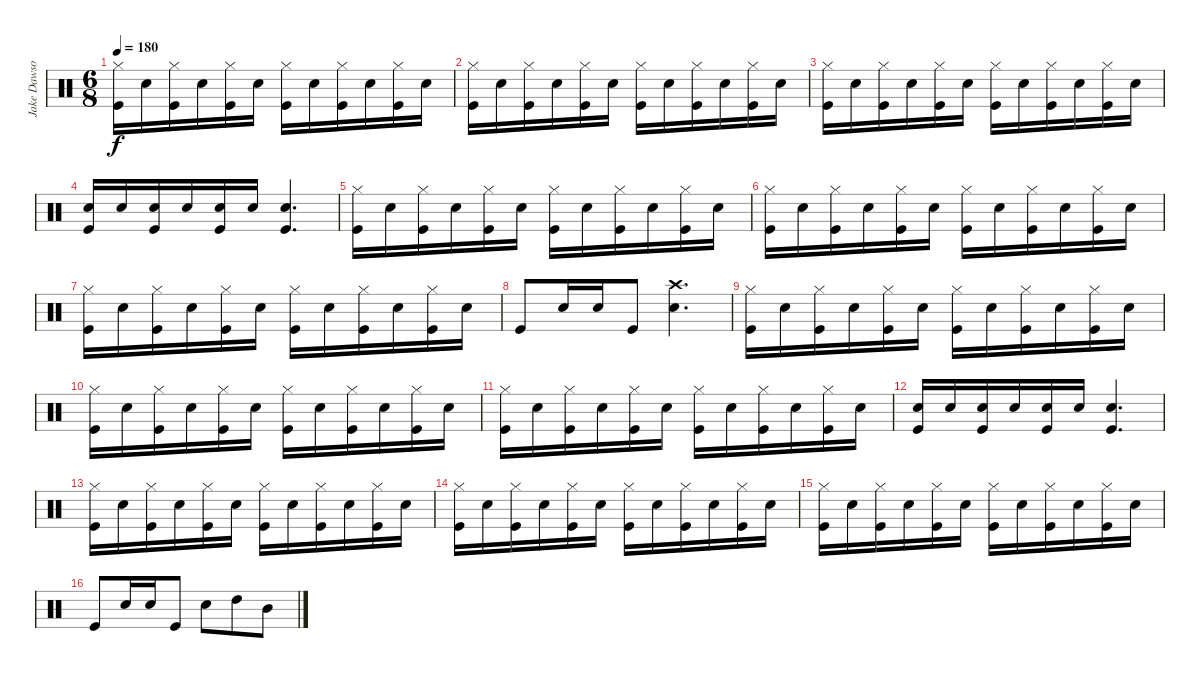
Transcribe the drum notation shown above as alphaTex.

\track ("Jake Dawson" "Jake Dawso") {instrument percussion}
\staff {score}
\articulation defaults
\ts (6 8)
\tempo 180
\clef neutral
\ks c
("Hi-Hat (closed)" "Kick (hit)").16{dy f} "Snare (hit) 2".16 ("Hi-Hat (closed)" "Kick (hit)").16 "Snare (hit) 2".16 ("Hi-Hat (closed)" "Kick (hit)").16 "Snare (hit) 2".16 ("Hi-Hat (closed)" "Kick (hit)").16 "Snare (hit) 2".16 ("Hi-Hat (closed)" "Kick (hit)").16 "Snare (hit) 2".16 ("Hi-Hat (closed)" "Kick (hit)").16 "Snare (hit) 2".16 |
("Hi-Hat (closed)" "Kick (hit)").16 "Snare (hit) 2".16 ("Hi-Hat (closed)" "Kick (hit)").16 "Snare (hit) 2".16 ("Hi-Hat (closed)" "Kick (hit)").16 "Snare (hit) 2".16 ("Hi-Hat (closed)" "Kick (hit)").16 "Snare (hit) 2".16 ("Hi-Hat (closed)" "Kick (hit)").16 "Snare (hit) 2".16 ("Hi-Hat (closed)" "Kick (hit)").16 "Snare (hit) 2".16 |
("Hi-Hat (closed)" "Kick (hit)").16 "Snare (hit) 2".16 ("Hi-Hat (closed)" "Kick (hit)").16 "Snare (hit) 2".16 ("Hi-Hat (closed)" "Kick (hit)").16 "Snare (hit) 2".16 ("Hi-Hat (closed)" "Kick (hit)").16 "Snare (hit) 2".16 ("Hi-Hat (closed)" "Kick (hit)").16 "Snare (hit) 2".16 ("Hi-Hat (closed)" "Kick (hit)").16 "Snare (hit) 2".16 |
("Snare (hit) 2" "Kick (hit)").16 "Snare (hit) 2".16 ("Snare (hit) 2" "Kick (hit)").16 "Snare (hit) 2".16 ("Snare (hit) 2" "Kick (hit)").16 "Snare (hit) 2".16 ("Snare (hit) 2" "Kick (hit)").4{d} |
("Hi-Hat (closed)" "Kick (hit)").16 "Snare (hit) 2".16 ("Hi-Hat (closed)" "Kick (hit)").16 "Snare (hit) 2".16 ("Hi-Hat (closed)" "Kick (hit)").16 "Snare (hit) 2".16 ("Hi-Hat (closed)" "Kick (hit)").16 "Snare (hit) 2".16 ("Hi-Hat (closed)" "Kick (hit)").16 "Snare (hit) 2".16 ("Hi-Hat (closed)" "Kick (hit)").16 "Snare (hit) 2".16 |
("Hi-Hat (closed)" "Kick (hit)").16 "Snare (hit) 2".16 ("Hi-Hat (closed)" "Kick (hit)").16 "Snare (hit) 2".16 ("Hi-Hat (closed)" "Kick (hit)").16 "Snare (hit) 2".16 ("Hi-Hat (closed)" "Kick (hit)").16 "Snare (hit) 2".16 ("Hi-Hat (closed)" "Kick (hit)").16 "Snare (hit) 2".16 ("Hi-Hat (closed)" "Kick (hit)").16 "Snare (hit) 2".16 |
("Hi-Hat (closed)" "Kick (hit)").16 "Snare (hit) 2".16 ("Hi-Hat (closed)" "Kick (hit)").16 "Snare (hit) 2".16 ("Hi-Hat (closed)" "Kick (hit)").16 "Snare (hit) 2".16 ("Hi-Hat (closed)" "Kick (hit)").16 "Snare (hit) 2".16 ("Hi-Hat (closed)" "Kick (hit)").16 "Snare (hit) 2".16 ("Hi-Hat (closed)" "Kick (hit)").16 "Snare (hit) 2".16 |
"Kick (hit)".8 "Snare (hit) 2".16 "Snare (hit) 2".16 "Kick (hit)".8 ("Crash high (hit)" "Snare (hit) 2").4{d} |
("Hi-Hat (closed)" "Kick (hit)").16 "Snare (hit) 2".16 ("Hi-Hat (closed)" "Kick (hit)").16 "Snare (hit) 2".16 ("Hi-Hat (closed)" "Kick (hit)").16 "Snare (hit) 2".16 ("Hi-Hat (closed)" "Kick (hit)").16 "Snare (hit) 2".16 ("Hi-Hat (closed)" "Kick (hit)").16 "Snare (hit) 2".16 ("Hi-Hat (closed)" "Kick (hit)").16 "Snare (hit) 2".16 |
("Hi-Hat (closed)" "Kick (hit)").16 "Snare (hit) 2".16 ("Hi-Hat (closed)" "Kick (hit)").16 "Snare (hit) 2".16 ("Hi-Hat (closed)" "Kick (hit)").16 "Snare (hit) 2".16 ("Hi-Hat (closed)" "Kick (hit)").16 "Snare (hit) 2".16 ("Hi-Hat (closed)" "Kick (hit)").16 "Snare (hit) 2".16 ("Hi-Hat (closed)" "Kick (hit)").16 "Snare (hit) 2".16 |
("Hi-Hat (closed)" "Kick (hit)").16 "Snare (hit) 2".16 ("Hi-Hat (closed)" "Kick (hit)").16 "Snare (hit) 2".16 ("Hi-Hat (closed)" "Kick (hit)").16 "Snare (hit) 2".16 ("Hi-Hat (closed)" "Kick (hit)").16 "Snare (hit) 2".16 ("Hi-Hat (closed)" "Kick (hit)").16 "Snare (hit) 2".16 ("Hi-Hat (closed)" "Kick (hit)").16 "Snare (hit) 2".16 |
("Snare (hit) 2" "Kick (hit)").16 "Snare (hit) 2".16 ("Snare (hit) 2" "Kick (hit)").16 "Snare (hit) 2".16 ("Snare (hit) 2" "Kick (hit)").16 "Snare (hit) 2".16 ("Snare (hit) 2" "Kick (hit)").4{d} |
("Hi-Hat (closed)" "Kick (hit)").16 "Snare (hit) 2".16 ("Hi-Hat (closed)" "Kick (hit)").16 "Snare (hit) 2".16 ("Hi-Hat (closed)" "Kick (hit)").16 "Snare (hit) 2".16 ("Hi-Hat (closed)" "Kick (hit)").16 "Snare (hit) 2".16 ("Hi-Hat (closed)" "Kick (hit)").16 "Snare (hit) 2".16 ("Hi-Hat (closed)" "Kick (hit)").16 "Snare (hit) 2".16 |
("Hi-Hat (closed)" "Kick (hit)").16 "Snare (hit) 2".16 ("Hi-Hat (closed)" "Kick (hit)").16 "Snare (hit) 2".16 ("Hi-Hat (closed)" "Kick (hit)").16 "Snare (hit) 2".16 ("Hi-Hat (closed)" "Kick (hit)").16 "Snare (hit) 2".16 ("Hi-Hat (closed)" "Kick (hit)").16 "Snare (hit) 2".16 ("Hi-Hat (closed)" "Kick (hit)").16 "Snare (hit) 2".16 |
("Hi-Hat (closed)" "Kick (hit)").16 "Snare (hit) 2".16 ("Hi-Hat (closed)" "Kick (hit)").16 "Snare (hit) 2".16 ("Hi-Hat (closed)" "Kick (hit)").16 "Snare (hit) 2".16 ("Hi-Hat (closed)" "Kick (hit)").16 "Snare (hit) 2".16 ("Hi-Hat (closed)" "Kick (hit)").16 "Snare (hit) 2".16 ("Hi-Hat (closed)" "Kick (hit)").16 "Snare (hit) 2".16 |
"Kick (hit)".8 "Snare (hit) 2".16 "Snare (hit) 2".16 "Kick (hit)".8 "Snare (hit) 2".8 "High Tom (hit)".8 "Mid Tom (hit)".8
